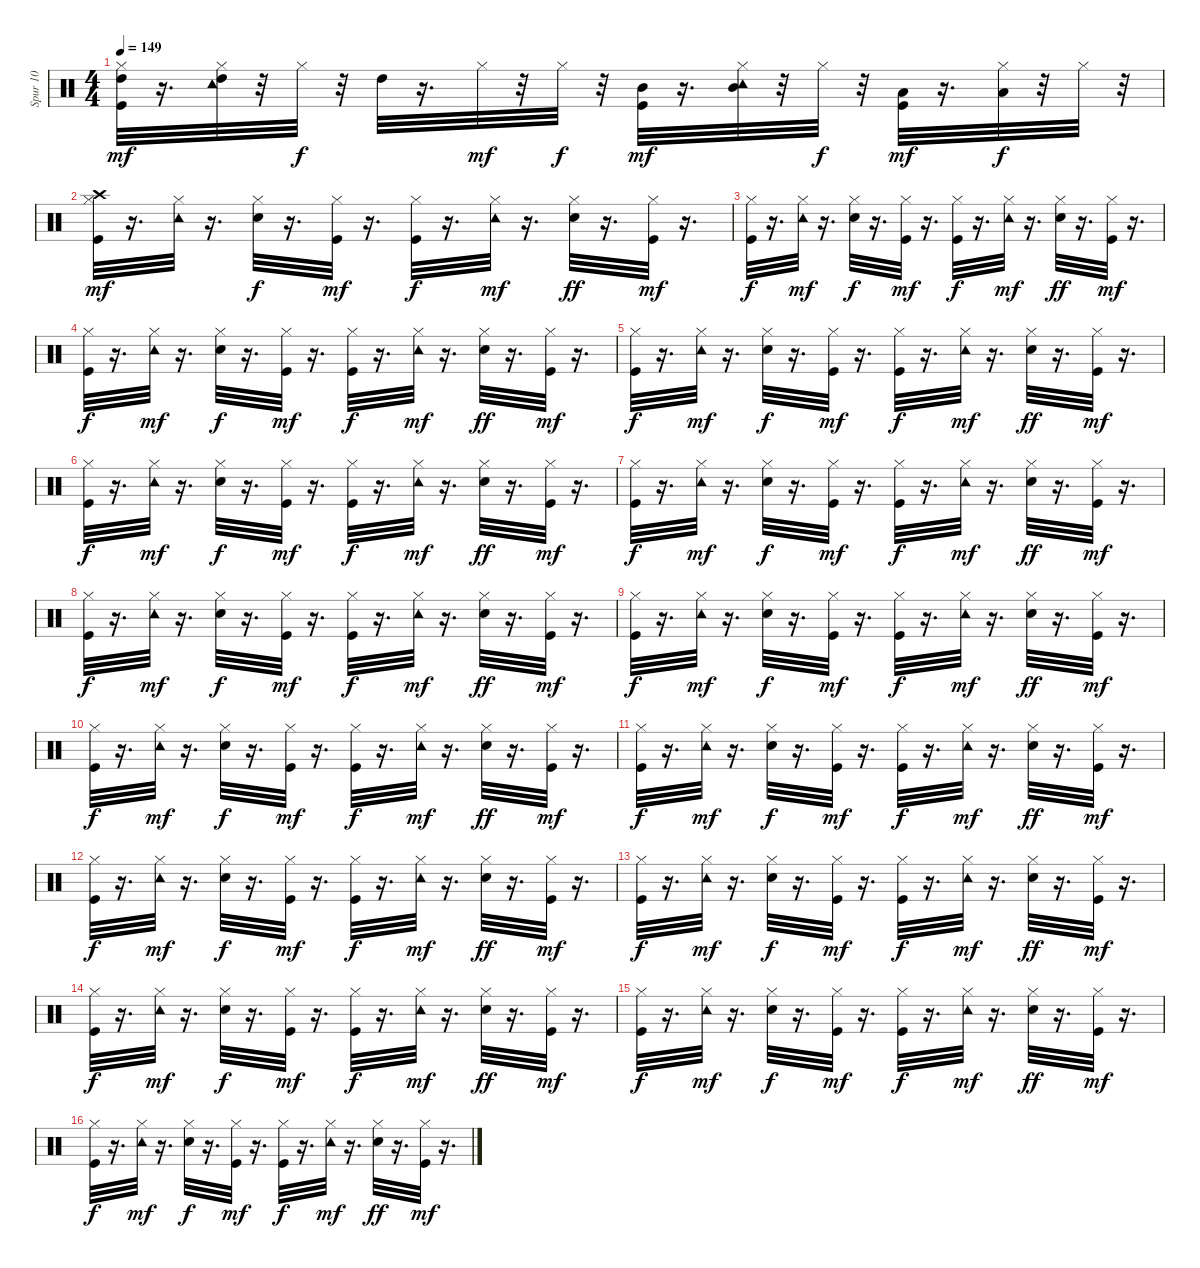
\track ("Spur 10" "Spur 10") {instrument percussion}
\staff {score}
\articulation defaults
\ts (4 4)
\tempo 149
\clef neutral
\ks c
("Kick (hit)" "Hi-Hat (closed)" "High Tom (hit)").32{dy mf} r.16{d} ("Hi-Hat (closed)" "High Tom (hit)" "Tambourine (hit)").32 r.32 "Hi-Hat (closed)".32{dy f} r.32 "High Tom (hit)".32 r.16{d} "Hi-Hat (closed)".32{dy mf} r.32 "Hi-Hat (closed)".32{dy f} r.32 ("Kick (hit)" "Mid Tom (hit)").32{dy mf} r.16{d} ("Hi-Hat (closed)" "Mid Tom (hit)" "Tambourine (hit)").32 r.32 "Hi-Hat (closed)".32{dy f} r.32 ("Kick (hit)" "Low Tom (hit)").32{dy mf} r.16{d} ("Hi-Hat (closed)" "Low Tom (hit)").32{dy f} r.32 "Hi-Hat (closed)".32 r.32 |
("Kick (hit)" "Hi-Hat (closed)" "Crash high (hit)").32{dy mf} r.16{d} ("Hi-Hat (closed)" "Tambourine (hit)").32 r.16{d} ("Snare (hit) 2" "Hi-Hat (closed)").32{dy f} r.16{d} ("Kick (hit)" "Hi-Hat (closed)").32{dy mf} r.16{d} ("Kick (hit)" "Hi-Hat (closed)").32{dy f} r.16{d} ("Hi-Hat (closed)" "Tambourine (hit)").32{dy mf} r.16{d} ("Snare (hit) 2" "Hi-Hat (closed)").32{dy ff} r.16{d} ("Kick (hit)" "Hi-Hat (closed)").32{dy mf} r.16{d} |
("Kick (hit)" "Hi-Hat (closed)").32{dy f} r.16{d} ("Hi-Hat (closed)" "Tambourine (hit)").32{dy mf} r.16{d} ("Snare (hit) 2" "Hi-Hat (closed)").32{dy f} r.16{d} ("Kick (hit)" "Hi-Hat (closed)").32{dy mf} r.16{d} ("Kick (hit)" "Hi-Hat (closed)").32{dy f} r.16{d} ("Hi-Hat (closed)" "Tambourine (hit)").32{dy mf} r.16{d} ("Snare (hit) 2" "Hi-Hat (closed)").32{dy ff} r.16{d} ("Kick (hit)" "Hi-Hat (closed)").32{dy mf} r.16{d} |
("Kick (hit)" "Hi-Hat (closed)").32{dy f} r.16{d} ("Hi-Hat (closed)" "Tambourine (hit)").32{dy mf} r.16{d} ("Snare (hit) 2" "Hi-Hat (closed)").32{dy f} r.16{d} ("Kick (hit)" "Hi-Hat (closed)").32{dy mf} r.16{d} ("Kick (hit)" "Hi-Hat (closed)").32{dy f} r.16{d} ("Hi-Hat (closed)" "Tambourine (hit)").32{dy mf} r.16{d} ("Snare (hit) 2" "Hi-Hat (closed)").32{dy ff} r.16{d} ("Kick (hit)" "Hi-Hat (closed)").32{dy mf} r.16{d} |
("Kick (hit)" "Hi-Hat (closed)").32{dy f} r.16{d} ("Hi-Hat (closed)" "Tambourine (hit)").32{dy mf} r.16{d} ("Snare (hit) 2" "Hi-Hat (closed)").32{dy f} r.16{d} ("Kick (hit)" "Hi-Hat (closed)").32{dy mf} r.16{d} ("Kick (hit)" "Hi-Hat (closed)").32{dy f} r.16{d} ("Hi-Hat (closed)" "Tambourine (hit)").32{dy mf} r.16{d} ("Snare (hit) 2" "Hi-Hat (closed)").32{dy ff} r.16{d} ("Kick (hit)" "Hi-Hat (closed)").32{dy mf} r.16{d} |
("Kick (hit)" "Hi-Hat (closed)").32{dy f} r.16{d} ("Hi-Hat (closed)" "Tambourine (hit)").32{dy mf} r.16{d} ("Snare (hit) 2" "Hi-Hat (closed)").32{dy f} r.16{d} ("Kick (hit)" "Hi-Hat (closed)").32{dy mf} r.16{d} ("Kick (hit)" "Hi-Hat (closed)").32{dy f} r.16{d} ("Hi-Hat (closed)" "Tambourine (hit)").32{dy mf} r.16{d} ("Snare (hit) 2" "Hi-Hat (closed)").32{dy ff} r.16{d} ("Kick (hit)" "Hi-Hat (closed)").32{dy mf} r.16{d} |
("Kick (hit)" "Hi-Hat (closed)").32{dy f} r.16{d} ("Hi-Hat (closed)" "Tambourine (hit)").32{dy mf} r.16{d} ("Snare (hit) 2" "Hi-Hat (closed)").32{dy f} r.16{d} ("Kick (hit)" "Hi-Hat (closed)").32{dy mf} r.16{d} ("Kick (hit)" "Hi-Hat (closed)").32{dy f} r.16{d} ("Hi-Hat (closed)" "Tambourine (hit)").32{dy mf} r.16{d} ("Snare (hit) 2" "Hi-Hat (closed)").32{dy ff} r.16{d} ("Kick (hit)" "Hi-Hat (closed)").32{dy mf} r.16{d} |
("Kick (hit)" "Hi-Hat (closed)").32{dy f} r.16{d} ("Hi-Hat (closed)" "Tambourine (hit)").32{dy mf} r.16{d} ("Snare (hit) 2" "Hi-Hat (closed)").32{dy f} r.16{d} ("Kick (hit)" "Hi-Hat (closed)").32{dy mf} r.16{d} ("Kick (hit)" "Hi-Hat (closed)").32{dy f} r.16{d} ("Hi-Hat (closed)" "Tambourine (hit)").32{dy mf} r.16{d} ("Snare (hit) 2" "Hi-Hat (closed)").32{dy ff} r.16{d} ("Kick (hit)" "Hi-Hat (closed)").32{dy mf} r.16{d} |
("Kick (hit)" "Hi-Hat (closed)").32{dy f} r.16{d} ("Hi-Hat (closed)" "Tambourine (hit)").32{dy mf} r.16{d} ("Snare (hit) 2" "Hi-Hat (closed)").32{dy f} r.16{d} ("Kick (hit)" "Hi-Hat (closed)").32{dy mf} r.16{d} ("Kick (hit)" "Hi-Hat (closed)").32{dy f} r.16{d} ("Hi-Hat (closed)" "Tambourine (hit)").32{dy mf} r.16{d} ("Snare (hit) 2" "Hi-Hat (closed)").32{dy ff} r.16{d} ("Kick (hit)" "Hi-Hat (closed)").32{dy mf} r.16{d} |
("Kick (hit)" "Hi-Hat (closed)").32{dy f} r.16{d} ("Hi-Hat (closed)" "Tambourine (hit)").32{dy mf} r.16{d} ("Snare (hit) 2" "Hi-Hat (closed)").32{dy f} r.16{d} ("Kick (hit)" "Hi-Hat (closed)").32{dy mf} r.16{d} ("Kick (hit)" "Hi-Hat (closed)").32{dy f} r.16{d} ("Hi-Hat (closed)" "Tambourine (hit)").32{dy mf} r.16{d} ("Snare (hit) 2" "Hi-Hat (closed)").32{dy ff} r.16{d} ("Kick (hit)" "Hi-Hat (closed)").32{dy mf} r.16{d} |
("Kick (hit)" "Hi-Hat (closed)").32{dy f} r.16{d} ("Hi-Hat (closed)" "Tambourine (hit)").32{dy mf} r.16{d} ("Snare (hit) 2" "Hi-Hat (closed)").32{dy f} r.16{d} ("Kick (hit)" "Hi-Hat (closed)").32{dy mf} r.16{d} ("Kick (hit)" "Hi-Hat (closed)").32{dy f} r.16{d} ("Hi-Hat (closed)" "Tambourine (hit)").32{dy mf} r.16{d} ("Snare (hit) 2" "Hi-Hat (closed)").32{dy ff} r.16{d} ("Kick (hit)" "Hi-Hat (closed)").32{dy mf} r.16{d} |
("Kick (hit)" "Hi-Hat (closed)").32{dy f} r.16{d} ("Hi-Hat (closed)" "Tambourine (hit)").32{dy mf} r.16{d} ("Snare (hit) 2" "Hi-Hat (closed)").32{dy f} r.16{d} ("Kick (hit)" "Hi-Hat (closed)").32{dy mf} r.16{d} ("Kick (hit)" "Hi-Hat (closed)").32{dy f} r.16{d} ("Hi-Hat (closed)" "Tambourine (hit)").32{dy mf} r.16{d} ("Snare (hit) 2" "Hi-Hat (closed)").32{dy ff} r.16{d} ("Kick (hit)" "Hi-Hat (closed)").32{dy mf} r.16{d} |
("Kick (hit)" "Hi-Hat (closed)").32{dy f} r.16{d} ("Hi-Hat (closed)" "Tambourine (hit)").32{dy mf} r.16{d} ("Snare (hit) 2" "Hi-Hat (closed)").32{dy f} r.16{d} ("Kick (hit)" "Hi-Hat (closed)").32{dy mf} r.16{d} ("Kick (hit)" "Hi-Hat (closed)").32{dy f} r.16{d} ("Hi-Hat (closed)" "Tambourine (hit)").32{dy mf} r.16{d} ("Snare (hit) 2" "Hi-Hat (closed)").32{dy ff} r.16{d} ("Kick (hit)" "Hi-Hat (closed)").32{dy mf} r.16{d} |
("Kick (hit)" "Hi-Hat (closed)").32{dy f} r.16{d} ("Hi-Hat (closed)" "Tambourine (hit)").32{dy mf} r.16{d} ("Snare (hit) 2" "Hi-Hat (closed)").32{dy f} r.16{d} ("Kick (hit)" "Hi-Hat (closed)").32{dy mf} r.16{d} ("Kick (hit)" "Hi-Hat (closed)").32{dy f} r.16{d} ("Hi-Hat (closed)" "Tambourine (hit)").32{dy mf} r.16{d} ("Snare (hit) 2" "Hi-Hat (closed)").32{dy ff} r.16{d} ("Kick (hit)" "Hi-Hat (closed)").32{dy mf} r.16{d} |
("Kick (hit)" "Hi-Hat (closed)").32{dy f} r.16{d} ("Hi-Hat (closed)" "Tambourine (hit)").32{dy mf} r.16{d} ("Snare (hit) 2" "Hi-Hat (closed)").32{dy f} r.16{d} ("Kick (hit)" "Hi-Hat (closed)").32{dy mf} r.16{d} ("Kick (hit)" "Hi-Hat (closed)").32{dy f} r.16{d} ("Hi-Hat (closed)" "Tambourine (hit)").32{dy mf} r.16{d} ("Snare (hit) 2" "Hi-Hat (closed)").32{dy ff} r.16{d} ("Kick (hit)" "Hi-Hat (closed)").32{dy mf} r.16{d} |
("Kick (hit)" "Hi-Hat (closed)").32{dy f} r.16{d} ("Hi-Hat (closed)" "Tambourine (hit)").32{dy mf} r.16{d} ("Snare (hit) 2" "Hi-Hat (closed)").32{dy f} r.16{d} ("Kick (hit)" "Hi-Hat (closed)").32{dy mf} r.16{d} ("Kick (hit)" "Hi-Hat (closed)").32{dy f} r.16{d} ("Hi-Hat (closed)" "Tambourine (hit)").32{dy mf} r.16{d} ("Snare (hit) 2" "Hi-Hat (closed)").32{dy ff} r.16{d} ("Kick (hit)" "Hi-Hat (closed)").32{dy mf} r.16{d}
